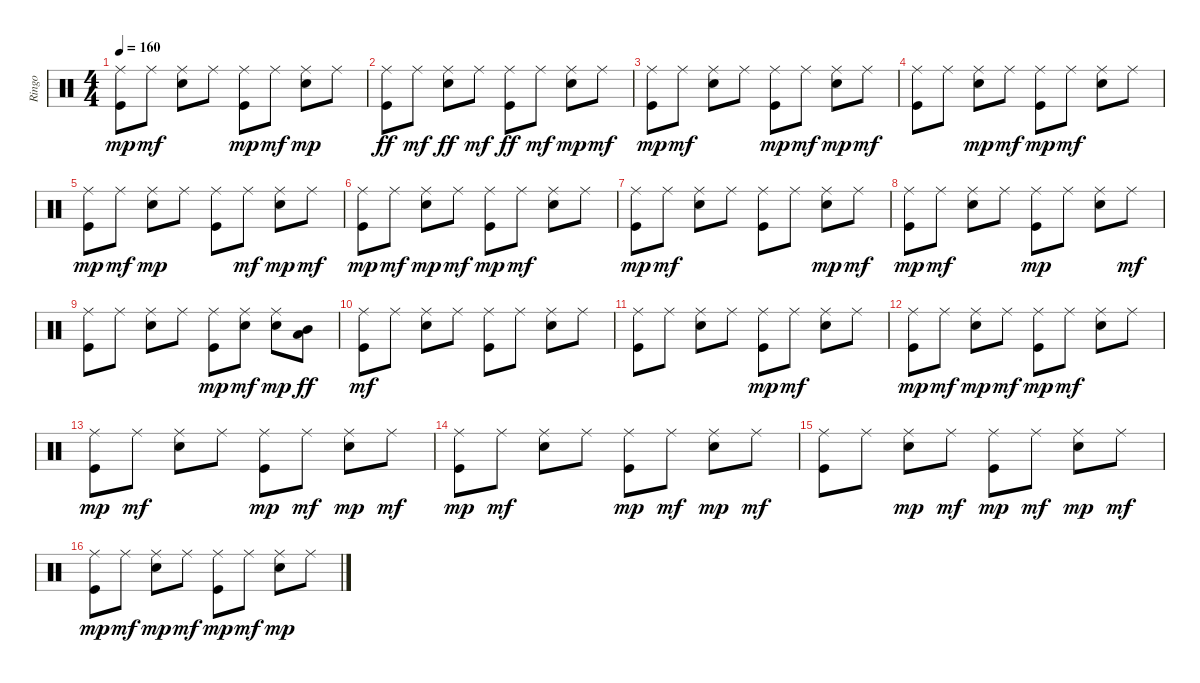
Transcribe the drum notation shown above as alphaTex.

\track ("Ringo" "Ringo") {instrument percussion}
\staff {score}
\articulation defaults
\ts (4 4)
\tempo 160
\clef neutral
\ks c
("Ride (middle)" "Kick (hit)").8{dy mp} "Ride (middle)".8{dy mf} ("Electric Snare (hit)" "Ride (middle)").8 "Ride (middle)".8 ("Kick (hit)" "Ride (middle)").8{dy mp} "Ride (middle)".8{dy mf} ("Electric Snare (hit)" "Ride (middle)").8{dy mp} "Ride (middle)".8 |
("Ride (middle)" "Kick (hit)").8{dy ff} "Ride (middle)".8{dy mf} ("Ride (middle)" "Electric Snare (hit)").8{dy ff} "Ride (middle)".8{dy mf} ("Ride (middle)" "Kick (hit)").8{dy ff} "Ride (middle)".8{dy mf} ("Electric Snare (hit)" "Ride (middle)").8{dy mp} "Ride (middle)".8{dy mf} |
("Kick (hit)" "Ride (middle)").8{dy mp} "Ride (middle)".8{dy mf} ("Electric Snare (hit)" "Ride (middle)").8 "Ride (middle)".8 ("Ride (middle)" "Kick (hit)").8{dy mp} "Ride (middle)".8{dy mf} ("Electric Snare (hit)" "Ride (middle)").8{dy mp} "Ride (middle)".8{dy mf} |
("Kick (hit)" "Ride (middle)").8 "Ride (middle)".8 ("Electric Snare (hit)" "Ride (middle)").8{dy mp} "Ride (middle)".8{dy mf} ("Kick (hit)" "Ride (middle)").8{dy mp} "Ride (middle)".8{dy mf} ("Electric Snare (hit)" "Ride (middle)").8 "Ride (middle)".8 |
("Kick (hit)" "Ride (middle)").8{dy mp} "Ride (middle)".8{dy mf} ("Electric Snare (hit)" "Ride (middle)").8{dy mp} "Ride (middle)".8 ("Kick (hit)" "Ride (middle)").8 "Ride (middle)".8{dy mf} ("Electric Snare (hit)" "Ride (middle)").8{dy mp} "Ride (middle)".8{dy mf} |
("Kick (hit)" "Ride (middle)").8{dy mp} "Ride (middle)".8{dy mf} ("Electric Snare (hit)" "Ride (middle)").8{dy mp} "Ride (middle)".8{dy mf} ("Kick (hit)" "Ride (middle)").8{dy mp} "Ride (middle)".8{dy mf} ("Electric Snare (hit)" "Ride (middle)").8 "Ride (middle)".8 |
("Kick (hit)" "Ride (middle)").8{dy mp} "Ride (middle)".8{dy mf} ("Electric Snare (hit)" "Ride (middle)").8 "Ride (middle)".8 ("Kick (hit)" "Ride (middle)").8 "Ride (middle)".8 ("Electric Snare (hit)" "Ride (middle)").8{dy mp} "Ride (middle)".8{dy mf} |
("Kick (hit)" "Ride (middle)").8{dy mp} "Ride (middle)".8{dy mf} ("Electric Snare (hit)" "Ride (middle)").8 "Ride (middle)".8 ("Kick (hit)" "Ride (middle)").8{dy mp} "Ride (middle)".8 ("Electric Snare (hit)" "Ride (middle)").8 "Ride (middle)".8{dy mf} |
("Kick (hit)" "Ride (middle)").8 "Ride (middle)".8 ("Electric Snare (hit)" "Ride (middle)").8 "Ride (middle)".8 ("Kick (hit)" "Ride (middle)").8{dy mp} ("Electric Snare (hit)" "Ride (middle)").8{dy mf} ("Electric Snare (hit)" "Ride (middle)").8{dy mp} ("Mid Tom (hit)" "Low Tom (hit)").8{dy ff} |
("Kick (hit)" "Ride (middle)").8{dy mf} "Ride (middle)".8 ("Electric Snare (hit)" "Ride (middle)").8 "Ride (middle)".8 ("Kick (hit)" "Ride (middle)").8 "Ride (middle)".8 ("Electric Snare (hit)" "Ride (middle)").8 "Ride (middle)".8 |
("Kick (hit)" "Ride (middle)").8 "Ride (middle)".8 ("Electric Snare (hit)" "Ride (middle)").8 "Ride (middle)".8 ("Kick (hit)" "Ride (middle)").8{dy mp} "Ride (middle)".8{dy mf} ("Electric Snare (hit)" "Ride (middle)").8 "Ride (middle)".8 |
("Kick (hit)" "Ride (middle)").8{dy mp} "Ride (middle)".8{dy mf} ("Electric Snare (hit)" "Ride (middle)").8{dy mp} "Ride (middle)".8{dy mf} ("Kick (hit)" "Ride (middle)").8{dy mp} "Ride (middle)".8{dy mf} ("Electric Snare (hit)" "Ride (middle)").8 "Ride (middle)".8 |
("Kick (hit)" "Ride (middle)").8{dy mp} "Ride (middle)".8{dy mf} ("Electric Snare (hit)" "Ride (middle)").8 "Ride (middle)".8 ("Kick (hit)" "Ride (middle)").8{dy mp} "Ride (middle)".8{dy mf} ("Electric Snare (hit)" "Ride (middle)").8{dy mp} "Ride (middle)".8{dy mf} |
("Kick (hit)" "Ride (middle)").8{dy mp} "Ride (middle)".8{dy mf} ("Electric Snare (hit)" "Ride (middle)").8 "Ride (middle)".8 ("Kick (hit)" "Ride (middle)").8{dy mp} "Ride (middle)".8{dy mf} ("Electric Snare (hit)" "Ride (middle)").8{dy mp} "Ride (middle)".8{dy mf} |
("Kick (hit)" "Ride (middle)").8 "Ride (middle)".8 ("Electric Snare (hit)" "Ride (middle)").8{dy mp} "Ride (middle)".8{dy mf} ("Kick (hit)" "Ride (middle)").8{dy mp} "Ride (middle)".8{dy mf} ("Electric Snare (hit)" "Ride (middle)").8{dy mp} "Ride (middle)".8{dy mf} |
("Kick (hit)" "Ride (middle)").8{dy mp} "Ride (middle)".8{dy mf} ("Electric Snare (hit)" "Ride (middle)").8{dy mp} "Ride (middle)".8{dy mf} ("Kick (hit)" "Ride (middle)").8{dy mp} "Ride (middle)".8{dy mf} ("Electric Snare (hit)" "Ride (middle)").8{dy mp} "Ride (middle)".8
